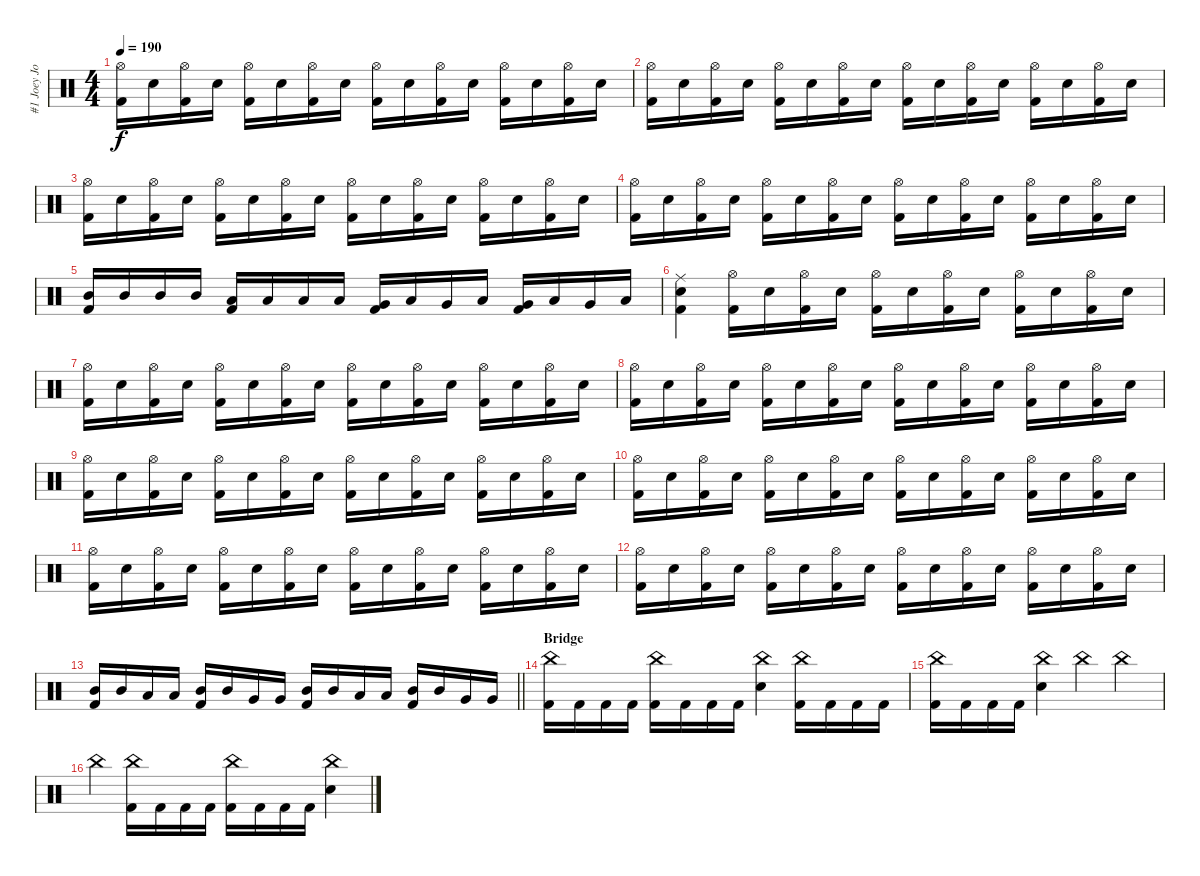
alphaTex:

\track ("#1 Joey Jordison" "#1 Joey Jo") {instrument percussion}
\staff {score}
\articulation defaults
\ts (4 4)
\tempo 190
\clef neutral
\ks c
("Hi-Hat (open)" "Kick (hit) 2").16{dy f} "Electric Snare (hit)".16 ("Hi-Hat (open)" "Kick (hit) 2").16 "Electric Snare (hit)".16 ("Hi-Hat (open)" "Kick (hit) 2").16 "Electric Snare (hit)".16 ("Hi-Hat (open)" "Kick (hit) 2").16 "Electric Snare (hit)".16 ("Hi-Hat (open)" "Kick (hit) 2").16 "Electric Snare (hit)".16 ("Hi-Hat (open)" "Kick (hit) 2").16 "Electric Snare (hit)".16 ("Hi-Hat (open)" "Kick (hit) 2").16 "Electric Snare (hit)".16 ("Hi-Hat (open)" "Kick (hit) 2").16 "Electric Snare (hit)".16 |
("Hi-Hat (open)" "Kick (hit) 2").16 "Electric Snare (hit)".16 ("Hi-Hat (open)" "Kick (hit) 2").16 "Electric Snare (hit)".16 ("Hi-Hat (open)" "Kick (hit) 2").16 "Electric Snare (hit)".16 ("Hi-Hat (open)" "Kick (hit) 2").16 "Electric Snare (hit)".16 ("Hi-Hat (open)" "Kick (hit) 2").16 "Electric Snare (hit)".16 ("Hi-Hat (open)" "Kick (hit) 2").16 "Electric Snare (hit)".16 ("Hi-Hat (open)" "Kick (hit) 2").16 "Electric Snare (hit)".16 ("Hi-Hat (open)" "Kick (hit) 2").16 "Electric Snare (hit)".16 |
("Hi-Hat (open)" "Kick (hit) 2").16 "Electric Snare (hit)".16 ("Hi-Hat (open)" "Kick (hit) 2").16 "Electric Snare (hit)".16 ("Hi-Hat (open)" "Kick (hit) 2").16 "Electric Snare (hit)".16 ("Hi-Hat (open)" "Kick (hit) 2").16 "Electric Snare (hit)".16 ("Hi-Hat (open)" "Kick (hit) 2").16 "Electric Snare (hit)".16 ("Hi-Hat (open)" "Kick (hit) 2").16 "Electric Snare (hit)".16 ("Hi-Hat (open)" "Kick (hit) 2").16 "Electric Snare (hit)".16 ("Hi-Hat (open)" "Kick (hit) 2").16 "Electric Snare (hit)".16 |
("Hi-Hat (open)" "Kick (hit) 2").16 "Electric Snare (hit)".16 ("Hi-Hat (open)" "Kick (hit) 2").16 "Electric Snare (hit)".16 ("Hi-Hat (open)" "Kick (hit) 2").16 "Electric Snare (hit)".16 ("Hi-Hat (open)" "Kick (hit) 2").16 "Electric Snare (hit)".16 ("Hi-Hat (open)" "Kick (hit) 2").16 "Electric Snare (hit)".16 ("Hi-Hat (open)" "Kick (hit) 2").16 "Electric Snare (hit)".16 ("Hi-Hat (open)" "Kick (hit) 2").16 "Electric Snare (hit)".16 ("Hi-Hat (open)" "Kick (hit) 2").16 "Electric Snare (hit)".16 |
("Mid Tom (hit)" "Kick (hit) 2").16 "Mid Tom (hit)".16 "Mid Tom (hit)".16 "Mid Tom (hit)".16 ("Low Tom (hit)" "Kick (hit) 2").16 "Low Tom (hit)".16 "Low Tom (hit)".16 "Low Tom (hit)".16 ("Very Low Tom (hit)" "Kick (hit) 2").16 "Low Floor Tom (hit)".16 "Very Low Tom (hit)".16 "Low Floor Tom (hit)".16 ("Very Low Tom (hit)" "Kick (hit) 2").16 "Low Floor Tom (hit)".16 "Very Low Tom (hit)".16 "Low Floor Tom (hit)".16 |
("Ride (middle)" "Electric Snare (hit)" "Kick (hit) 2").4 ("Hi-Hat (open)" "Kick (hit) 2").16 "Electric Snare (hit)".16 ("Hi-Hat (open)" "Kick (hit) 2").16 "Electric Snare (hit)".16 ("Hi-Hat (open)" "Kick (hit) 2").16 "Electric Snare (hit)".16 ("Hi-Hat (open)" "Kick (hit) 2").16 "Electric Snare (hit)".16 ("Hi-Hat (open)" "Kick (hit) 2").16 "Electric Snare (hit)".16 ("Hi-Hat (open)" "Kick (hit) 2").16 "Electric Snare (hit)".16 |
("Hi-Hat (open)" "Kick (hit) 2").16 "Electric Snare (hit)".16 ("Hi-Hat (open)" "Kick (hit) 2").16 "Electric Snare (hit)".16 ("Hi-Hat (open)" "Kick (hit) 2").16 "Electric Snare (hit)".16 ("Hi-Hat (open)" "Kick (hit) 2").16 "Electric Snare (hit)".16 ("Hi-Hat (open)" "Kick (hit) 2").16 "Electric Snare (hit)".16 ("Hi-Hat (open)" "Kick (hit) 2").16 "Electric Snare (hit)".16 ("Hi-Hat (open)" "Kick (hit) 2").16 "Electric Snare (hit)".16 ("Hi-Hat (open)" "Kick (hit) 2").16 "Electric Snare (hit)".16 |
("Hi-Hat (open)" "Kick (hit) 2").16 "Electric Snare (hit)".16 ("Hi-Hat (open)" "Kick (hit) 2").16 "Electric Snare (hit)".16 ("Hi-Hat (open)" "Kick (hit) 2").16 "Electric Snare (hit)".16 ("Hi-Hat (open)" "Kick (hit) 2").16 "Electric Snare (hit)".16 ("Hi-Hat (open)" "Kick (hit) 2").16 "Electric Snare (hit)".16 ("Hi-Hat (open)" "Kick (hit) 2").16 "Electric Snare (hit)".16 ("Hi-Hat (open)" "Kick (hit) 2").16 "Electric Snare (hit)".16 ("Hi-Hat (open)" "Kick (hit) 2").16 "Electric Snare (hit)".16 |
("Hi-Hat (open)" "Kick (hit) 2").16 "Electric Snare (hit)".16 ("Hi-Hat (open)" "Kick (hit) 2").16 "Electric Snare (hit)".16 ("Hi-Hat (open)" "Kick (hit) 2").16 "Electric Snare (hit)".16 ("Hi-Hat (open)" "Kick (hit) 2").16 "Electric Snare (hit)".16 ("Hi-Hat (open)" "Kick (hit) 2").16 "Electric Snare (hit)".16 ("Hi-Hat (open)" "Kick (hit) 2").16 "Electric Snare (hit)".16 ("Hi-Hat (open)" "Kick (hit) 2").16 "Electric Snare (hit)".16 ("Hi-Hat (open)" "Kick (hit) 2").16 "Electric Snare (hit)".16 |
("Hi-Hat (open)" "Kick (hit) 2").16 "Electric Snare (hit)".16 ("Hi-Hat (open)" "Kick (hit) 2").16 "Electric Snare (hit)".16 ("Hi-Hat (open)" "Kick (hit) 2").16 "Electric Snare (hit)".16 ("Hi-Hat (open)" "Kick (hit) 2").16 "Electric Snare (hit)".16 ("Hi-Hat (open)" "Kick (hit) 2").16 "Electric Snare (hit)".16 ("Hi-Hat (open)" "Kick (hit) 2").16 "Electric Snare (hit)".16 ("Hi-Hat (open)" "Kick (hit) 2").16 "Electric Snare (hit)".16 ("Hi-Hat (open)" "Kick (hit) 2").16 "Electric Snare (hit)".16 |
("Hi-Hat (open)" "Kick (hit) 2").16 "Electric Snare (hit)".16 ("Hi-Hat (open)" "Kick (hit) 2").16 "Electric Snare (hit)".16 ("Hi-Hat (open)" "Kick (hit) 2").16 "Electric Snare (hit)".16 ("Hi-Hat (open)" "Kick (hit) 2").16 "Electric Snare (hit)".16 ("Hi-Hat (open)" "Kick (hit) 2").16 "Electric Snare (hit)".16 ("Hi-Hat (open)" "Kick (hit) 2").16 "Electric Snare (hit)".16 ("Hi-Hat (open)" "Kick (hit) 2").16 "Electric Snare (hit)".16 ("Hi-Hat (open)" "Kick (hit) 2").16 "Electric Snare (hit)".16 |
("Hi-Hat (open)" "Kick (hit) 2").16 "Electric Snare (hit)".16 ("Hi-Hat (open)" "Kick (hit) 2").16 "Electric Snare (hit)".16 ("Hi-Hat (open)" "Kick (hit) 2").16 "Electric Snare (hit)".16 ("Hi-Hat (open)" "Kick (hit) 2").16 "Electric Snare (hit)".16 ("Hi-Hat (open)" "Kick (hit) 2").16 "Electric Snare (hit)".16 ("Hi-Hat (open)" "Kick (hit) 2").16 "Electric Snare (hit)".16 ("Hi-Hat (open)" "Kick (hit) 2").16 "Electric Snare (hit)".16 ("Hi-Hat (open)" "Kick (hit) 2").16 "Electric Snare (hit)".16 |
\barLineRight lightlight
("Mid Tom (hit)" "Kick (hit) 2").16 "Mid Tom (hit)".16 "Low Tom (hit)".16 "Low Tom (hit)".16 ("Mid Tom (hit)" "Kick (hit) 2").16 "Mid Tom (hit)".16 "Very Low Tom (hit)".16 "Very Low Tom (hit)".16 ("Mid Tom (hit)" "Kick (hit) 2").16 "Mid Tom (hit)".16 "Low Tom (hit)".16 "Low Tom (hit)".16 ("Mid Tom (hit)" "Kick (hit) 2").16 "Mid Tom (hit)".16 "Very Low Tom (hit)".16 "Very Low Tom (hit)".16 |
\section ("" "Bridge")
("China (hit)" "Kick (hit) 2").16 "Kick (hit) 2".16 "Kick (hit) 2".16 "Kick (hit) 2".16 ("China (hit)" "Kick (hit) 2").16 "Kick (hit) 2".16 "Kick (hit) 2".16 "Kick (hit) 2".16 ("China (hit)" "Electric Snare (hit)").4 ("China (hit)" "Kick (hit) 2").16 "Kick (hit) 2".16 "Kick (hit) 2".16 "Kick (hit) 2".16 |
("China (hit)" "Kick (hit) 2").16 "Kick (hit) 2".16 "Kick (hit) 2".16 "Kick (hit) 2".16 ("China (hit)" "Electric Snare (hit)").4 "China (hit)".4 "China (hit)".4 |
"China (hit)".4 ("China (hit)" "Kick (hit) 2").16 "Kick (hit) 2".16 "Kick (hit) 2".16 "Kick (hit) 2".16 ("China (hit)" "Kick (hit) 2").16 "Kick (hit) 2".16 "Kick (hit) 2".16 "Kick (hit) 2".16 ("China (hit)" "Electric Snare (hit)").4
